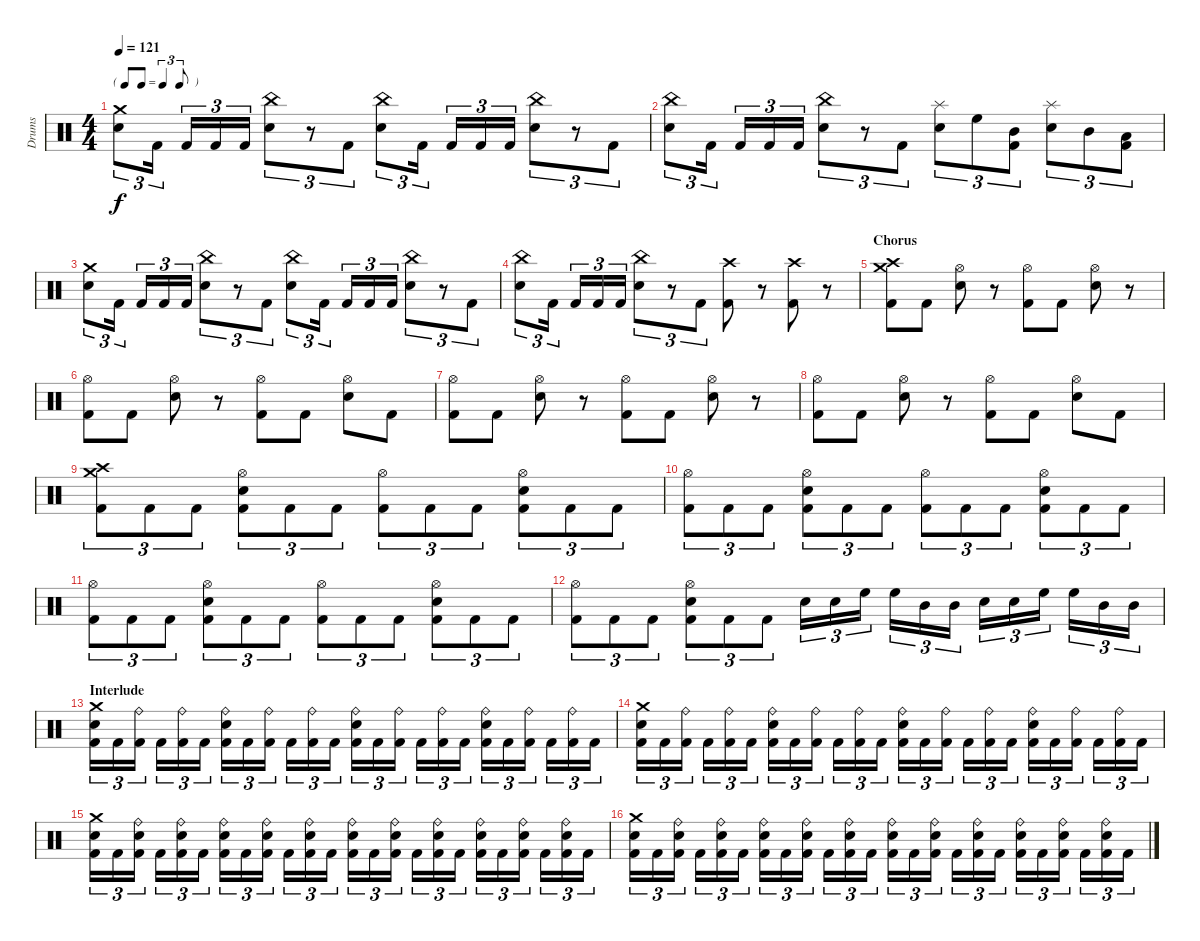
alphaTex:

\track ("Drums" "Drums") {instrument percussion}
\staff {score}
\articulation defaults
\ts (4 4)
\tf triplet8th
\tempo 121
\clef neutral
\ks c
("Crash medium (hit)" "Electric Snare (hit)").8{tu (3 2) dy f volume 15} "Kick (hit) 2".16{tu (3 2)} "Kick (hit) 2".16{tu (3 2)} "Kick (hit) 2".16{tu (3 2)} "Kick (hit) 2".16{tu (3 2)} ("China (hit)" "Electric Snare (hit)").8{tu (3 2)} r.8{tu (3 2)} "Kick (hit) 2".8{tu (3 2)} ("China (hit)" "Electric Snare (hit)").8{tu (3 2)} "Kick (hit) 2".16{tu (3 2)} "Kick (hit) 2".16{tu (3 2)} "Kick (hit) 2".16{tu (3 2)} "Kick (hit) 2".16{tu (3 2)} ("China (hit)" "Electric Snare (hit)").8{tu (3 2)} r.8{tu (3 2)} "Kick (hit) 2".8{tu (3 2)} |
("China (hit)" "Electric Snare (hit)").8{tu (3 2)} "Kick (hit) 2".16{tu (3 2)} "Kick (hit) 2".16{tu (3 2)} "Kick (hit) 2".16{tu (3 2)} "Kick (hit) 2".16{tu (3 2)} ("China (hit)" "Electric Snare (hit)").8{tu (3 2)} r.8{tu (3 2)} "Kick (hit) 2".8{tu (3 2)} ("Splash (hit)" "Electric Snare (hit)").8{tu (3 2)} "High Floor Tom (hit)".8{tu (3 2)} ("Mid Tom (hit)" "Kick (hit) 2").8{tu (3 2)} ("Splash (hit)" "Electric Snare (hit)").8{tu (3 2)} "Mid Tom (hit)".8{tu (3 2)} ("Low Tom (hit)" "Kick (hit) 2").8{tu (3 2)} |
("Crash medium (hit)" "Electric Snare (hit)").8{tu (3 2)} "Kick (hit) 2".16{tu (3 2)} "Kick (hit) 2".16{tu (3 2)} "Kick (hit) 2".16{tu (3 2)} "Kick (hit) 2".16{tu (3 2)} ("China (hit)" "Electric Snare (hit)").8{tu (3 2)} r.8{tu (3 2)} "Kick (hit) 2".8{tu (3 2)} ("China (hit)" "Electric Snare (hit)").8{tu (3 2)} "Kick (hit) 2".16{tu (3 2)} "Kick (hit) 2".16{tu (3 2)} "Kick (hit) 2".16{tu (3 2)} "Kick (hit) 2".16{tu (3 2)} ("China (hit)" "Electric Snare (hit)").8{tu (3 2)} r.8{tu (3 2)} "Kick (hit) 2".8{tu (3 2)} |
("China (hit)" "Electric Snare (hit)").8{tu (3 2)} "Kick (hit) 2".16{tu (3 2)} "Kick (hit) 2".16{tu (3 2)} "Kick (hit) 2".16{tu (3 2)} "Kick (hit) 2".16{tu (3 2)} ("China (hit)" "Electric Snare (hit)").8{tu (3 2)} r.8{tu (3 2)} "Kick (hit) 2".8{tu (3 2)} ("Crash high (hit)" "Kick (hit) 2").8 r.8{volume 0} ("Crash high (hit)" "Kick (hit) 2").8{volume 15} r.8{volume 0} |
\section ("" "Chorus")
("Crash high (hit)" "Crash medium (hit)" "Kick (hit) 2").8{volume 15} "Kick (hit) 2".8 ("Hi-Hat (open)" "Electric Snare (hit)").8 r.8 ("Hi-Hat (open)" "Kick (hit) 2").8 "Kick (hit) 2".8 ("Hi-Hat (open)" "Electric Snare (hit)").8 r.8 |
("Hi-Hat (open)" "Kick (hit) 2").8 "Kick (hit) 2".8 ("Hi-Hat (open)" "Electric Snare (hit)").8 r.8 ("Hi-Hat (open)" "Kick (hit) 2").8 "Kick (hit) 2".8 ("Hi-Hat (open)" "Electric Snare (hit)").8 "Kick (hit) 2".8 |
("Hi-Hat (open)" "Kick (hit) 2").8 "Kick (hit) 2".8 ("Hi-Hat (open)" "Electric Snare (hit)").8 r.8 ("Hi-Hat (open)" "Kick (hit) 2").8 "Kick (hit) 2".8 ("Hi-Hat (open)" "Electric Snare (hit)").8 r.8 |
("Hi-Hat (open)" "Kick (hit) 2").8 "Kick (hit) 2".8 ("Hi-Hat (open)" "Electric Snare (hit)").8 r.8 ("Hi-Hat (open)" "Kick (hit) 2").8 "Kick (hit) 2".8 ("Hi-Hat (open)" "Electric Snare (hit)").8 "Kick (hit) 2".8 |
("Crash medium (hit)" "Crash high (hit)" "Kick (hit) 2").8{tu (3 2)} "Kick (hit) 2".8{tu (3 2)} "Kick (hit) 2".8{tu (3 2)} ("Hi-Hat (open)" "Electric Snare (hit)" "Kick (hit) 2").8{tu (3 2)} "Kick (hit) 2".8{tu (3 2)} "Kick (hit) 2".8{tu (3 2)} ("Hi-Hat (open)" "Kick (hit) 2").8{tu (3 2)} "Kick (hit) 2".8{tu (3 2)} "Kick (hit) 2".8{tu (3 2)} ("Hi-Hat (open)" "Electric Snare (hit)" "Kick (hit) 2").8{tu (3 2)} "Kick (hit) 2".8{tu (3 2)} "Kick (hit) 2".8{tu (3 2)} |
("Hi-Hat (open)" "Kick (hit) 2").8{tu (3 2)} "Kick (hit) 2".8{tu (3 2)} "Kick (hit) 2".8{tu (3 2)} ("Hi-Hat (open)" "Electric Snare (hit)" "Kick (hit) 2").8{tu (3 2)} "Kick (hit) 2".8{tu (3 2)} "Kick (hit) 2".8{tu (3 2)} ("Hi-Hat (open)" "Kick (hit) 2").8{tu (3 2)} "Kick (hit) 2".8{tu (3 2)} "Kick (hit) 2".8{tu (3 2)} ("Hi-Hat (open)" "Electric Snare (hit)" "Kick (hit) 2").8{tu (3 2)} "Kick (hit) 2".8{tu (3 2)} "Kick (hit) 2".8{tu (3 2)} |
("Hi-Hat (open)" "Kick (hit) 2").8{tu (3 2)} "Kick (hit) 2".8{tu (3 2)} "Kick (hit) 2".8{tu (3 2)} ("Hi-Hat (open)" "Electric Snare (hit)" "Kick (hit) 2").8{tu (3 2)} "Kick (hit) 2".8{tu (3 2)} "Kick (hit) 2".8{tu (3 2)} ("Hi-Hat (open)" "Kick (hit) 2").8{tu (3 2)} "Kick (hit) 2".8{tu (3 2)} "Kick (hit) 2".8{tu (3 2)} ("Hi-Hat (open)" "Electric Snare (hit)" "Kick (hit) 2").8{tu (3 2)} "Kick (hit) 2".8{tu (3 2)} "Kick (hit) 2".8{tu (3 2)} |
("Hi-Hat (open)" "Kick (hit) 2").8{tu (3 2)} "Kick (hit) 2".8{tu (3 2)} "Kick (hit) 2".8{tu (3 2)} ("Hi-Hat (open)" "Electric Snare (hit)" "Kick (hit) 2").8{tu (3 2)} "Kick (hit) 2".8{tu (3 2)} "Kick (hit) 2".8{tu (3 2)} "Electric Snare (hit)".16{tu (3 2)} "Electric Snare (hit)".16{tu (3 2)} "High Floor Tom (hit)".16{tu (3 2)} "High Floor Tom (hit)".16{tu (3 2)} "Mid Tom (hit)".16{tu (3 2)} "Mid Tom (hit)".16{tu (3 2)} "Electric Snare (hit)".16{tu (3 2)} "Electric Snare (hit)".16{tu (3 2)} "High Floor Tom (hit)".16{tu (3 2)} "High Floor Tom (hit)".16{tu (3 2)} "Mid Tom (hit)".16{tu (3 2)} "Mid Tom (hit)".16{tu (3 2)} |
\section ("" "Interlude")
("Crash medium (hit)" "Electric Snare (hit)" "Kick (hit) 2").16{tu (3 2)} "Kick (hit) 2".16{tu (3 2)} ("Ride (bell)" "Kick (hit) 2").16{tu (3 2)} "Kick (hit) 2".16{tu (3 2)} ("Ride (bell)" "Kick (hit) 2").16{tu (3 2)} "Kick (hit) 2".16{tu (3 2)} ("Ride (bell)" "Electric Snare (hit)" "Kick (hit) 2").16{tu (3 2)} "Kick (hit) 2".16{tu (3 2)} ("Ride (bell)" "Kick (hit) 2").16{tu (3 2)} "Kick (hit) 2".16{tu (3 2)} ("Ride (bell)" "Kick (hit) 2").16{tu (3 2)} "Kick (hit) 2".16{tu (3 2)} ("Ride (bell)" "Electric Snare (hit)" "Kick (hit) 2").16{tu (3 2)} "Kick (hit) 2".16{tu (3 2)} ("Ride (bell)" "Kick (hit) 2").16{tu (3 2)} "Kick (hit) 2".16{tu (3 2)} ("Ride (bell)" "Kick (hit) 2").16{tu (3 2)} "Kick (hit) 2".16{tu (3 2)} ("Ride (bell)" "Electric Snare (hit)" "Kick (hit) 2").16{tu (3 2)} "Kick (hit) 2".16{tu (3 2)} ("Ride (bell)" "Kick (hit) 2").16{tu (3 2)} "Kick (hit) 2".16{tu (3 2)} ("Ride (bell)" "Kick (hit) 2").16{tu (3 2)} "Kick (hit) 2".16{tu (3 2)} |
("Crash medium (hit)" "Electric Snare (hit)" "Kick (hit) 2").16{tu (3 2)} "Kick (hit) 2".16{tu (3 2)} ("Ride (bell)" "Kick (hit) 2").16{tu (3 2)} "Kick (hit) 2".16{tu (3 2)} ("Ride (bell)" "Kick (hit) 2").16{tu (3 2)} "Kick (hit) 2".16{tu (3 2)} ("Ride (bell)" "Electric Snare (hit)" "Kick (hit) 2").16{tu (3 2)} "Kick (hit) 2".16{tu (3 2)} ("Ride (bell)" "Kick (hit) 2").16{tu (3 2)} "Kick (hit) 2".16{tu (3 2)} ("Ride (bell)" "Kick (hit) 2").16{tu (3 2)} "Kick (hit) 2".16{tu (3 2)} ("Ride (bell)" "Electric Snare (hit)" "Kick (hit) 2").16{tu (3 2)} "Kick (hit) 2".16{tu (3 2)} ("Ride (bell)" "Kick (hit) 2").16{tu (3 2)} "Kick (hit) 2".16{tu (3 2)} ("Ride (bell)" "Kick (hit) 2").16{tu (3 2)} "Kick (hit) 2".16{tu (3 2)} ("Ride (bell)" "Electric Snare (hit)" "Kick (hit) 2").16{tu (3 2)} "Kick (hit) 2".16{tu (3 2)} ("Ride (bell)" "Kick (hit) 2").16{tu (3 2)} "Kick (hit) 2".16{tu (3 2)} ("Ride (bell)" "Kick (hit) 2").16{tu (3 2)} "Kick (hit) 2".16{tu (3 2)} |
("Crash medium (hit)" "Electric Snare (hit)" "Kick (hit) 2").16{tu (3 2)} "Kick (hit) 2".16{tu (3 2)} ("Ride (bell)" "Electric Snare (hit)" "Kick (hit) 2").16{tu (3 2)} "Kick (hit) 2".16{tu (3 2)} ("Ride (bell)" "Electric Snare (hit)" "Kick (hit) 2").16{tu (3 2)} "Kick (hit) 2".16{tu (3 2)} ("Ride (bell)" "Electric Snare (hit)" "Kick (hit) 2").16{tu (3 2)} "Kick (hit) 2".16{tu (3 2)} ("Ride (bell)" "Electric Snare (hit)" "Kick (hit) 2").16{tu (3 2)} "Kick (hit) 2".16{tu (3 2)} ("Ride (bell)" "Electric Snare (hit)" "Kick (hit) 2").16{tu (3 2)} "Kick (hit) 2".16{tu (3 2)} ("Ride (bell)" "Electric Snare (hit)" "Kick (hit) 2").16{tu (3 2)} "Kick (hit) 2".16{tu (3 2)} ("Ride (bell)" "Electric Snare (hit)" "Kick (hit) 2").16{tu (3 2)} "Kick (hit) 2".16{tu (3 2)} ("Ride (bell)" "Electric Snare (hit)" "Kick (hit) 2").16{tu (3 2)} "Kick (hit) 2".16{tu (3 2)} ("Ride (bell)" "Electric Snare (hit)" "Kick (hit) 2").16{tu (3 2)} "Kick (hit) 2".16{tu (3 2)} ("Ride (bell)" "Electric Snare (hit)" "Kick (hit) 2").16{tu (3 2)} "Kick (hit) 2".16{tu (3 2)} ("Ride (bell)" "Electric Snare (hit)" "Kick (hit) 2").16{tu (3 2)} "Kick (hit) 2".16{tu (3 2)} |
("Crash medium (hit)" "Electric Snare (hit)" "Kick (hit) 2").16{tu (3 2)} "Kick (hit) 2".16{tu (3 2)} ("Ride (bell)" "Electric Snare (hit)" "Kick (hit) 2").16{tu (3 2)} "Kick (hit) 2".16{tu (3 2)} ("Ride (bell)" "Electric Snare (hit)" "Kick (hit) 2").16{tu (3 2)} "Kick (hit) 2".16{tu (3 2)} ("Ride (bell)" "Electric Snare (hit)" "Kick (hit) 2").16{tu (3 2)} "Kick (hit) 2".16{tu (3 2)} ("Ride (bell)" "Electric Snare (hit)" "Kick (hit) 2").16{tu (3 2)} "Kick (hit) 2".16{tu (3 2)} ("Ride (bell)" "Electric Snare (hit)" "Kick (hit) 2").16{tu (3 2)} "Kick (hit) 2".16{tu (3 2)} ("Ride (bell)" "Electric Snare (hit)" "Kick (hit) 2").16{tu (3 2)} "Kick (hit) 2".16{tu (3 2)} ("Ride (bell)" "Electric Snare (hit)" "Kick (hit) 2").16{tu (3 2)} "Kick (hit) 2".16{tu (3 2)} ("Ride (bell)" "Electric Snare (hit)" "Kick (hit) 2").16{tu (3 2)} "Kick (hit) 2".16{tu (3 2)} ("Ride (bell)" "Electric Snare (hit)" "Kick (hit) 2").16{tu (3 2)} "Kick (hit) 2".16{tu (3 2)} ("Ride (bell)" "Electric Snare (hit)" "Kick (hit) 2").16{tu (3 2)} "Kick (hit) 2".16{tu (3 2)} ("Ride (bell)" "Electric Snare (hit)" "Kick (hit) 2").16{tu (3 2)} "Kick (hit) 2".16{tu (3 2)}
